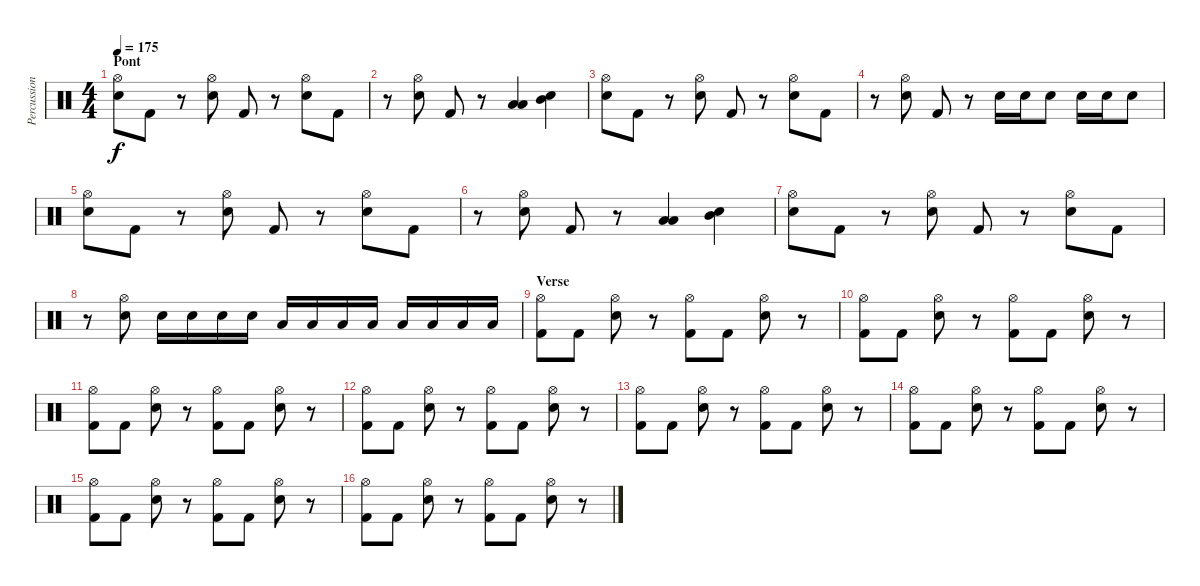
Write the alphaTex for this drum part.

\track ("Percussions" "Percussion") {instrument percussion}
\staff {score}
\articulation defaults
\ts (4 4)
\section ("" "Pont")
\tempo 175
\clef neutral
\ks c
("Hi-Hat (open)" "Snare (hit) 2").8{dy f} "Kick (hit) 2".8 r.8 ("Hi-Hat (open)" "Snare (hit) 2").8 "Kick (hit) 2".8 r.8 ("Hi-Hat (open)" "Snare (hit) 2").8 "Kick (hit) 2".8 |
r.8 ("Hi-Hat (open)" "Snare (hit) 2").8 "Kick (hit) 2".8 r.8 ("Low Floor Tom (hit)" "Low Tom (hit)").4{bu 60} ("Snare (hit) 2" "Mid Tom (hit)").4{bu 60} |
("Hi-Hat (open)" "Snare (hit) 2").8 "Kick (hit) 2".8 r.8 ("Hi-Hat (open)" "Snare (hit) 2").8 "Kick (hit) 2".8 r.8 ("Hi-Hat (open)" "Snare (hit) 2").8 "Kick (hit) 2".8 |
r.8 ("Hi-Hat (open)" "Snare (hit) 2").8 "Kick (hit) 2".8 r.8 "Snare (hit) 2".16 "Snare (hit) 2".16 "Snare (hit) 2".8 "Snare (hit) 2".16 "Snare (hit) 2".16 "Snare (hit) 2".8 |
("Hi-Hat (open)" "Snare (hit) 2").8 "Kick (hit) 2".8 r.8 ("Hi-Hat (open)" "Snare (hit) 2").8 "Kick (hit) 2".8 r.8 ("Hi-Hat (open)" "Snare (hit) 2").8 "Kick (hit) 2".8 |
r.8 ("Hi-Hat (open)" "Snare (hit) 2").8 "Kick (hit) 2".8 r.8 ("Low Floor Tom (hit)" "Low Tom (hit)").4{bu 60} ("Snare (hit) 2" "Mid Tom (hit)").4{bu 60} |
("Hi-Hat (open)" "Snare (hit) 2").8 "Kick (hit) 2".8 r.8 ("Hi-Hat (open)" "Snare (hit) 2").8 "Kick (hit) 2".8 r.8 ("Hi-Hat (open)" "Snare (hit) 2").8 "Kick (hit) 2".8 |
r.8 ("Hi-Hat (open)" "Snare (hit) 2").8 "Snare (hit) 2".16 "Snare (hit) 2".16 "Snare (hit) 2".16 "Snare (hit) 2".16 "Low Tom (hit)".16 "Low Tom (hit)".16 "Low Tom (hit)".16 "Low Tom (hit)".16 "Low Floor Tom (hit)".16 "Low Floor Tom (hit)".16 "Low Floor Tom (hit)".16 "Low Floor Tom (hit)".16 |
\section ("" "Verse")
("Hi-Hat (open)" "Kick (hit) 2").8 "Kick (hit) 2".8 ("Hi-Hat (open)" "Snare (hit) 2").8 r.8 ("Hi-Hat (open)" "Kick (hit) 2").8 "Kick (hit) 2".8 ("Hi-Hat (open)" "Snare (hit) 2").8 r.8 |
("Hi-Hat (open)" "Kick (hit) 2").8 "Kick (hit) 2".8 ("Hi-Hat (open)" "Snare (hit) 2").8 r.8 ("Hi-Hat (open)" "Kick (hit) 2").8 "Kick (hit) 2".8 ("Hi-Hat (open)" "Snare (hit) 2").8 r.8 |
("Hi-Hat (open)" "Kick (hit) 2").8 "Kick (hit) 2".8 ("Hi-Hat (open)" "Snare (hit) 2").8 r.8 ("Hi-Hat (open)" "Kick (hit) 2").8 "Kick (hit) 2".8 ("Hi-Hat (open)" "Snare (hit) 2").8 r.8 |
("Hi-Hat (open)" "Kick (hit) 2").8 "Kick (hit) 2".8 ("Hi-Hat (open)" "Snare (hit) 2").8 r.8 ("Hi-Hat (open)" "Kick (hit) 2").8 "Kick (hit) 2".8 ("Hi-Hat (open)" "Snare (hit) 2").8 r.8 |
("Hi-Hat (open)" "Kick (hit) 2").8 "Kick (hit) 2".8 ("Hi-Hat (open)" "Snare (hit) 2").8 r.8 ("Hi-Hat (open)" "Kick (hit) 2").8 "Kick (hit) 2".8 ("Hi-Hat (open)" "Snare (hit) 2").8 r.8 |
("Hi-Hat (open)" "Kick (hit) 2").8 "Kick (hit) 2".8 ("Hi-Hat (open)" "Snare (hit) 2").8 r.8 ("Hi-Hat (open)" "Kick (hit) 2").8 "Kick (hit) 2".8 ("Hi-Hat (open)" "Snare (hit) 2").8 r.8 |
("Hi-Hat (open)" "Kick (hit) 2").8 "Kick (hit) 2".8 ("Hi-Hat (open)" "Snare (hit) 2").8 r.8 ("Hi-Hat (open)" "Kick (hit) 2").8 "Kick (hit) 2".8 ("Hi-Hat (open)" "Snare (hit) 2").8 r.8 |
("Hi-Hat (open)" "Kick (hit) 2").8 "Kick (hit) 2".8 ("Hi-Hat (open)" "Snare (hit) 2").8 r.8 ("Hi-Hat (open)" "Kick (hit) 2").8 "Kick (hit) 2".8 ("Hi-Hat (open)" "Snare (hit) 2").8 r.8
